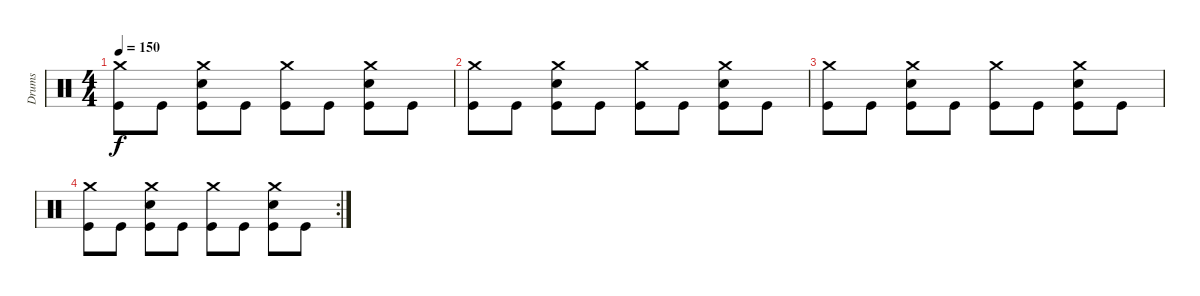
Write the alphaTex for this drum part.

\track ("Drums" "Drums") {instrument percussion}
\staff {score}
\articulation defaults
\ts (4 4)
\tempo 150
\clef neutral
\ks c
("Crash medium (hit)" "Kick (hit)").8{dy f} "Kick (hit)".8 ("Crash medium (hit)" "Snare (hit) 2" "Kick (hit)").8 "Kick (hit)".8 ("Crash medium (hit)" "Kick (hit)").8 "Kick (hit)".8 ("Crash medium (hit)" "Snare (hit) 2" "Kick (hit)").8 "Kick (hit)".8 |
("Crash medium (hit)" "Kick (hit)").8 "Kick (hit)".8 ("Crash medium (hit)" "Snare (hit) 2" "Kick (hit)").8 "Kick (hit)".8 ("Crash medium (hit)" "Kick (hit)").8 "Kick (hit)".8 ("Crash medium (hit)" "Snare (hit) 2" "Kick (hit)").8 "Kick (hit)".8 |
("Crash medium (hit)" "Kick (hit)").8 "Kick (hit)".8 ("Crash medium (hit)" "Snare (hit) 2" "Kick (hit)").8 "Kick (hit)".8 ("Crash medium (hit)" "Kick (hit)").8 "Kick (hit)".8 ("Crash medium (hit)" "Snare (hit) 2" "Kick (hit)").8 "Kick (hit)".8 |
\rc 2
("Crash medium (hit)" "Kick (hit)").8 "Kick (hit)".8 ("Crash medium (hit)" "Snare (hit) 2" "Kick (hit)").8 "Kick (hit)".8 ("Crash medium (hit)" "Kick (hit)").8 "Kick (hit)".8 ("Crash medium (hit)" "Snare (hit) 2" "Kick (hit)").8 "Kick (hit)".8
